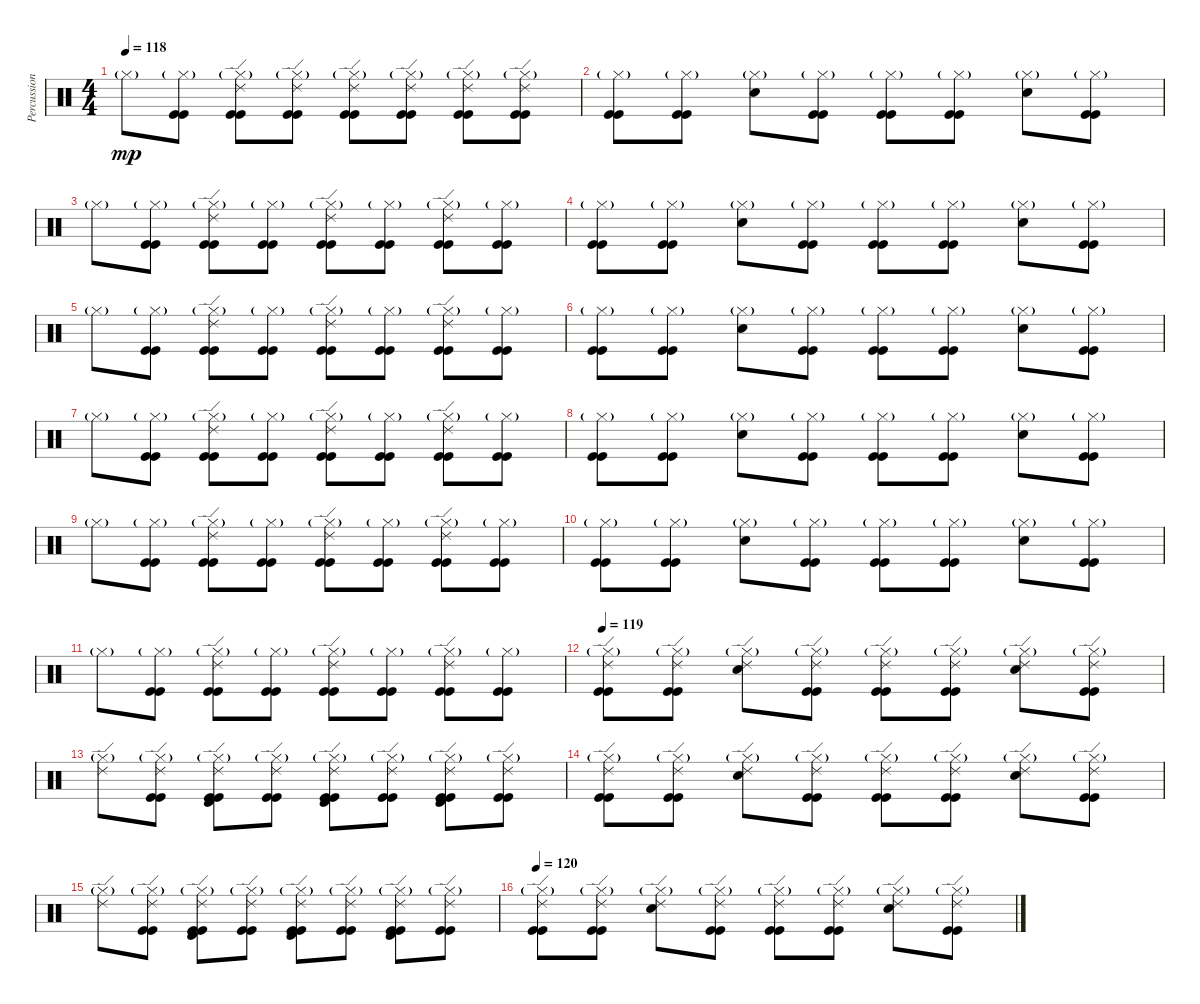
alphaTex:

\track ("Percussion" "Percussion") {instrument percussion}
\staff {score}
\articulation defaults
\ts (4 4)
\tempo 118
\clef neutral
\ks c "Hi-Hat (closed)"{g}.8{dy mp}
("Hi-Hat (closed)"{g} "Kick (hit)" "Kick (hit)").8 ("Hi-Hat (closed)"{g} "Ride (edge) 2" "Kick (hit)" "Kick (hit)").8 ("Hi-Hat (closed)"{g} "Ride (edge) 2" "Kick (hit)" "Kick (hit)").8 ("Hi-Hat (closed)"{g} "Ride (edge) 2" "Kick (hit)" "Kick (hit)").8 ("Hi-Hat (closed)"{g} "Ride (edge) 2" "Kick (hit)" "Kick (hit)").8 ("Hi-Hat (closed)"{g} "Ride (edge) 2" "Kick (hit)" "Kick (hit)").8 ("Hi-Hat (closed)"{g} "Ride (edge) 2" "Kick (hit)" "Kick (hit)").8 |
("Hi-Hat (closed)"{g} "Kick (hit)" "Kick (hit)").8 ("Hi-Hat (closed)"{g} "Kick (hit)" "Kick (hit)").8 ("Hi-Hat (closed)"{g} "Snare (hit) 2").8 ("Hi-Hat (closed)"{g} "Kick (hit)" "Kick (hit)").8 ("Hi-Hat (closed)"{g} "Kick (hit)" "Kick (hit)").8 ("Hi-Hat (closed)"{g} "Kick (hit)" "Kick (hit)").8 ("Hi-Hat (closed)"{g} "Snare (hit) 2").8 ("Hi-Hat (closed)"{g} "Kick (hit)" "Kick (hit)").8 |
"Hi-Hat (closed)"{g}.8 ("Hi-Hat (closed)"{g} "Kick (hit)" "Kick (hit)").8 ("Hi-Hat (closed)"{g} "Ride (edge) 2" "Kick (hit)" "Kick (hit)").8 ("Hi-Hat (closed)"{g} "Kick (hit)" "Kick (hit)").8 ("Hi-Hat (closed)"{g} "Ride (edge) 2" "Kick (hit)" "Kick (hit)").8 ("Hi-Hat (closed)"{g} "Kick (hit)" "Kick (hit)").8 ("Hi-Hat (closed)"{g} "Ride (edge) 2" "Kick (hit)" "Kick (hit)").8 ("Hi-Hat (closed)"{g} "Kick (hit)" "Kick (hit)").8 |
("Hi-Hat (closed)"{g} "Kick (hit)" "Kick (hit)").8 ("Hi-Hat (closed)"{g} "Kick (hit)" "Kick (hit)").8 ("Hi-Hat (closed)"{g} "Snare (hit) 2").8 ("Hi-Hat (closed)"{g} "Kick (hit)" "Kick (hit)").8 ("Hi-Hat (closed)"{g} "Kick (hit)" "Kick (hit)").8 ("Hi-Hat (closed)"{g} "Kick (hit)" "Kick (hit)").8 ("Hi-Hat (closed)"{g} "Snare (hit) 2").8 ("Hi-Hat (closed)"{g} "Kick (hit)" "Kick (hit)").8 |
"Hi-Hat (closed)"{g}.8 ("Hi-Hat (closed)"{g} "Kick (hit)" "Kick (hit)").8 ("Hi-Hat (closed)"{g} "Ride (edge) 2" "Kick (hit)" "Kick (hit)").8 ("Hi-Hat (closed)"{g} "Kick (hit)" "Kick (hit)").8 ("Hi-Hat (closed)"{g} "Ride (edge) 2" "Kick (hit)" "Kick (hit)").8 ("Hi-Hat (closed)"{g} "Kick (hit)" "Kick (hit)").8 ("Hi-Hat (closed)"{g} "Ride (edge) 2" "Kick (hit)" "Kick (hit)").8 ("Hi-Hat (closed)"{g} "Kick (hit)" "Kick (hit)").8 |
("Hi-Hat (closed)"{g} "Kick (hit)" "Kick (hit)").8 ("Hi-Hat (closed)"{g} "Kick (hit)" "Kick (hit)").8 ("Hi-Hat (closed)"{g} "Snare (hit) 2").8 ("Hi-Hat (closed)"{g} "Kick (hit)" "Kick (hit)").8 ("Hi-Hat (closed)"{g} "Kick (hit)" "Kick (hit)").8 ("Hi-Hat (closed)"{g} "Kick (hit)" "Kick (hit)").8 ("Hi-Hat (closed)"{g} "Snare (hit) 2").8 ("Hi-Hat (closed)"{g} "Kick (hit)" "Kick (hit)").8 |
"Hi-Hat (closed)"{g}.8 ("Hi-Hat (closed)"{g} "Kick (hit)" "Kick (hit)").8 ("Hi-Hat (closed)"{g} "Ride (edge) 2" "Kick (hit)" "Kick (hit)").8 ("Hi-Hat (closed)"{g} "Kick (hit)" "Kick (hit)").8 ("Hi-Hat (closed)"{g} "Ride (edge) 2" "Kick (hit)" "Kick (hit)").8 ("Hi-Hat (closed)"{g} "Kick (hit)" "Kick (hit)").8 ("Hi-Hat (closed)"{g} "Ride (edge) 2" "Kick (hit)" "Kick (hit)").8 ("Hi-Hat (closed)"{g} "Kick (hit)" "Kick (hit)").8 |
("Hi-Hat (closed)"{g} "Kick (hit)" "Kick (hit)").8 ("Hi-Hat (closed)"{g} "Kick (hit)" "Kick (hit)").8 ("Hi-Hat (closed)"{g} "Snare (hit) 2").8 ("Hi-Hat (closed)"{g} "Kick (hit)" "Kick (hit)").8 ("Hi-Hat (closed)"{g} "Kick (hit)" "Kick (hit)").8 ("Hi-Hat (closed)"{g} "Kick (hit)" "Kick (hit)").8 ("Hi-Hat (closed)"{g} "Snare (hit) 2").8 ("Hi-Hat (closed)"{g} "Kick (hit)" "Kick (hit)").8 |
"Hi-Hat (closed)"{g}.8 ("Hi-Hat (closed)"{g} "Kick (hit)" "Kick (hit)").8 ("Hi-Hat (closed)"{g} "Ride (edge) 2" "Kick (hit)" "Kick (hit)").8 ("Hi-Hat (closed)"{g} "Kick (hit)" "Kick (hit)").8 ("Hi-Hat (closed)"{g} "Ride (edge) 2" "Kick (hit)" "Kick (hit)").8 ("Hi-Hat (closed)"{g} "Kick (hit)" "Kick (hit)").8 ("Hi-Hat (closed)"{g} "Ride (edge) 2" "Kick (hit)" "Kick (hit)").8 ("Hi-Hat (closed)"{g} "Kick (hit)" "Kick (hit)").8 |
("Hi-Hat (closed)"{g} "Kick (hit)" "Kick (hit)").8 ("Hi-Hat (closed)"{g} "Kick (hit)" "Kick (hit)").8 ("Hi-Hat (closed)"{g} "Snare (hit) 2").8 ("Hi-Hat (closed)"{g} "Kick (hit)" "Kick (hit)").8 ("Hi-Hat (closed)"{g} "Kick (hit)" "Kick (hit)").8 ("Hi-Hat (closed)"{g} "Kick (hit)" "Kick (hit)").8 ("Hi-Hat (closed)"{g} "Snare (hit) 2").8 ("Hi-Hat (closed)"{g} "Kick (hit)" "Kick (hit)").8 |
"Hi-Hat (closed)"{g}.8 ("Hi-Hat (closed)"{g} "Kick (hit)" "Kick (hit)").8 ("Hi-Hat (closed)"{g} "Ride (edge) 2" "Kick (hit)" "Kick (hit)").8 ("Hi-Hat (closed)"{g} "Kick (hit)" "Kick (hit)").8 ("Hi-Hat (closed)"{g} "Ride (edge) 2" "Kick (hit)" "Kick (hit)").8 ("Hi-Hat (closed)"{g} "Kick (hit)" "Kick (hit)").8 ("Hi-Hat (closed)"{g} "Ride (edge) 2" "Kick (hit)" "Kick (hit)").8 ("Hi-Hat (closed)"{g} "Kick (hit)" "Kick (hit)").8 |
\tempo 119
("Hi-Hat (closed)"{g} "Ride (edge) 2" "Kick (hit)" "Kick (hit)").8 ("Hi-Hat (closed)"{g} "Ride (edge) 2" "Kick (hit)" "Kick (hit)").8 ("Hi-Hat (closed)"{g} "Ride (edge) 2" "Snare (hit) 2").8 ("Hi-Hat (closed)"{g} "Ride (edge) 2" "Kick (hit)" "Kick (hit)").8 ("Hi-Hat (closed)"{g} "Ride (edge) 2" "Kick (hit)" "Kick (hit)").8 ("Hi-Hat (closed)"{g} "Ride (edge) 2" "Kick (hit)" "Kick (hit)").8 ("Hi-Hat (closed)"{g} "Ride (edge) 2" "Snare (hit) 2").8 ("Hi-Hat (closed)"{g} "Ride (edge) 2" "Kick (hit)" "Kick (hit)").8 |
("Hi-Hat (closed)"{g} "Ride (edge) 2").8 ("Hi-Hat (closed)"{g} "Ride (edge) 2" "Kick (hit)" "Kick (hit)").8 ("Hi-Hat (closed)"{g} "Ride (edge) 2" "Timbale high (hit)" "Kick (hit)" "Kick (hit)").8 ("Hi-Hat (closed)"{g} "Ride (edge) 2" "Kick (hit)" "Kick (hit)").8 ("Hi-Hat (closed)"{g} "Ride (edge) 2" "Timbale high (hit)" "Kick (hit)" "Kick (hit)").8 ("Hi-Hat (closed)"{g} "Ride (edge) 2" "Kick (hit)" "Kick (hit)").8 ("Hi-Hat (closed)"{g} "Ride (edge) 2" "Timbale high (hit)" "Kick (hit)" "Kick (hit)").8 ("Hi-Hat (closed)"{g} "Ride (edge) 2" "Kick (hit)" "Kick (hit)").8 |
("Hi-Hat (closed)"{g} "Ride (edge) 2" "Kick (hit)" "Kick (hit)").8 ("Hi-Hat (closed)"{g} "Ride (edge) 2" "Kick (hit)" "Kick (hit)").8 ("Hi-Hat (closed)"{g} "Ride (edge) 2" "Snare (hit) 2").8 ("Hi-Hat (closed)"{g} "Ride (edge) 2" "Kick (hit)" "Kick (hit)").8 ("Hi-Hat (closed)"{g} "Ride (edge) 2" "Kick (hit)" "Kick (hit)").8 ("Hi-Hat (closed)"{g} "Ride (edge) 2" "Kick (hit)" "Kick (hit)").8 ("Hi-Hat (closed)"{g} "Ride (edge) 2" "Snare (hit) 2").8 ("Hi-Hat (closed)"{g} "Ride (edge) 2" "Kick (hit)" "Kick (hit)").8 |
("Hi-Hat (closed)"{g} "Ride (edge) 2").8 ("Hi-Hat (closed)"{g} "Ride (edge) 2" "Kick (hit)" "Kick (hit)").8 ("Hi-Hat (closed)"{g} "Ride (edge) 2" "Timbale high (hit)" "Kick (hit)" "Kick (hit)").8 ("Hi-Hat (closed)"{g} "Ride (edge) 2" "Kick (hit)" "Kick (hit)").8 ("Hi-Hat (closed)"{g} "Ride (edge) 2" "Timbale high (hit)" "Kick (hit)" "Kick (hit)").8 ("Hi-Hat (closed)"{g} "Ride (edge) 2" "Kick (hit)" "Kick (hit)").8 ("Hi-Hat (closed)"{g} "Ride (edge) 2" "Timbale high (hit)" "Kick (hit)" "Kick (hit)").8 ("Hi-Hat (closed)"{g} "Ride (edge) 2" "Kick (hit)" "Kick (hit)").8 |
\tempo 120
("Hi-Hat (closed)"{g} "Ride (edge) 2" "Kick (hit)" "Kick (hit)").8 ("Hi-Hat (closed)"{g} "Ride (edge) 2" "Kick (hit)" "Kick (hit)").8 ("Hi-Hat (closed)"{g} "Ride (edge) 2" "Snare (hit) 2").8 ("Hi-Hat (closed)"{g} "Ride (edge) 2" "Kick (hit)" "Kick (hit)").8 ("Hi-Hat (closed)"{g} "Ride (edge) 2" "Kick (hit)" "Kick (hit)").8 ("Hi-Hat (closed)"{g} "Ride (edge) 2" "Kick (hit)" "Kick (hit)").8 ("Hi-Hat (closed)"{g} "Ride (edge) 2" "Snare (hit) 2").8 ("Hi-Hat (closed)"{g} "Ride (edge) 2" "Kick (hit)" "Kick (hit)").8
